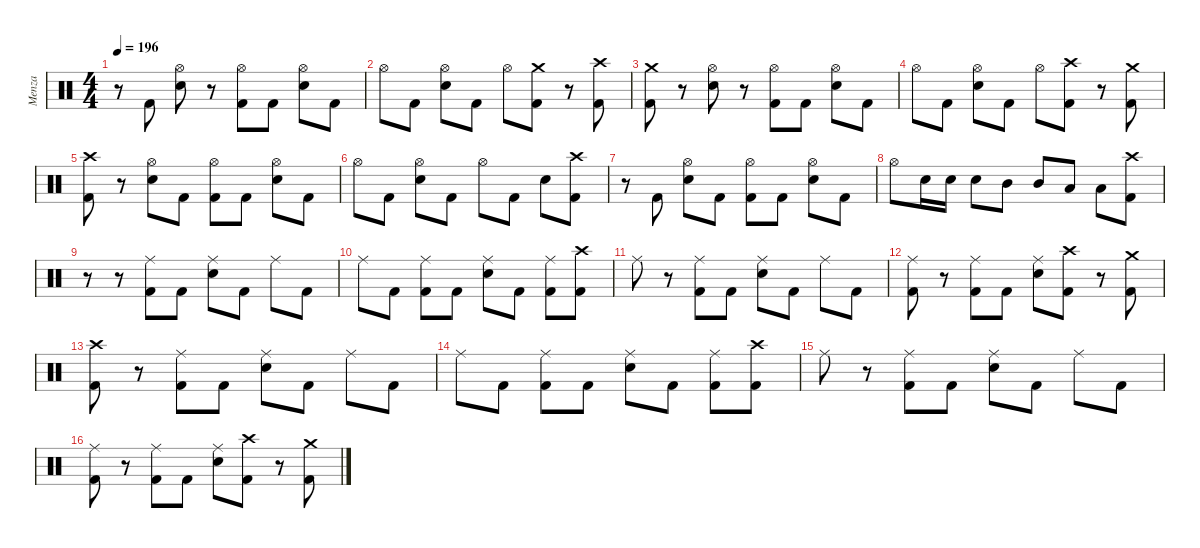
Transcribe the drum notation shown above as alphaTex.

\defaultSystemsLayout 4
\hideDynamics
\bracketExtendMode nobrackets
\firstSystemTrackNameMode fullname
\otherSystemsTrackNameOrientation horizontal
\track ("Menza" "drm.") {instrument percussion}
\staff {score}
\articulation defaults
\ts (4 4)
\tempo 196
\clef neutral
\ks c
r.8{dy fff beam Down} "Kick (hit) 2".8{beam Up} ("Hi-Hat (open)" "Snare (hit) 2").8{dy f beam Down} r.8{beam Down} ("Hi-Hat (open)" "Kick (hit) 2").8{beam Down} "Kick (hit) 2".8{dy fff beam Down} ("Hi-Hat (open)" "Snare (hit) 2").8{dy f beam Down} "Kick (hit) 2".8{dy fff beam Down} |
"Hi-Hat (open)".8{dy f beam Down} "Kick (hit) 2".8{dy fff beam Down} ("Hi-Hat (open)" "Snare (hit) 2").8{dy f beam Down} "Kick (hit) 2".8{dy fff beam Down} "Hi-Hat (open)".8{dy f beam Down} ("Crash medium (hit)" "Kick (hit) 2").8{dy fff beam Down} r.8{beam Down} ("Crash high (hit)" "Kick (hit) 2").8{dy f beam Down} |
("Crash medium (hit)" "Kick (hit) 2").8{dy ff beam Down} r.8{beam Down} ("Hi-Hat (open)" "Snare (hit) 2").8{dy f beam Down} r.8{beam Down} ("Hi-Hat (open)" "Kick (hit) 2").8{beam Down} "Kick (hit) 2".8{dy fff beam Down} ("Hi-Hat (open)" "Snare (hit) 2").8{dy f beam Down} "Kick (hit) 2".8{dy fff beam Down} |
"Hi-Hat (open)".8{dy f beam Down} "Kick (hit) 2".8{dy fff beam Down} ("Hi-Hat (open)" "Snare (hit) 2").8{dy f beam Down} "Kick (hit) 2".8{dy fff beam Down} "Hi-Hat (open)".8{dy f beam Down} ("Crash high (hit)" "Kick (hit) 2").8{dy fff beam Down} r.8{beam Down} ("Crash medium (hit)" "Kick (hit) 2").8{dy f beam Down} |
("Crash high (hit)" "Kick (hit) 2").8{dy fff beam Down} r.8{beam Down} ("Hi-Hat (open)" "Snare (hit) 2").8{dy f beam Down} "Kick (hit) 2".8{dy fff beam Down} ("Hi-Hat (open)" "Kick (hit) 2").8{dy f beam Down} "Kick (hit) 2".8{dy fff beam Down} ("Hi-Hat (open)" "Snare (hit) 2").8{dy f beam Down} "Kick (hit) 2".8{dy fff beam Down} |
"Hi-Hat (open)".8{dy f beam Down} "Kick (hit) 2".8{dy fff beam Down} ("Hi-Hat (open)" "Snare (hit) 2").8{dy f beam Down} "Kick (hit) 2".8{dy fff beam Down} "Hi-Hat (open)".8{dy f beam Down} "Kick (hit) 2".8{dy fff beam Down} "Snare (hit) 2".8{beam Down} ("Crash high (hit)" "Kick (hit) 2").8{beam Down} |
r.8{beam Down} "Kick (hit) 2".8{beam Up} ("Hi-Hat (open)" "Snare (hit) 2").8{dy f beam Down} "Kick (hit) 2".8{dy fff beam Down} ("Hi-Hat (open)" "Kick (hit) 2").8{dy f beam Down} "Kick (hit) 2".8{dy fff beam Down} ("Hi-Hat (open)" "Snare (hit) 2").8{dy f beam Down} "Kick (hit) 2".8{dy fff beam Down} |
"Hi-Hat (open)".8{dy f beam Down} "Snare (hit) 2".16{beam Down} "Snare (hit) 2".16{beam Down} "Snare (hit) 2".8{beam Down} "Mid Tom (hit)".8{beam Down} "Mid Tom (hit)".8{dy ff beam Up} "Low Tom (hit)".8{beam Up} "Low Floor Tom (hit)".8{beam Down} ("Crash high (hit)" "Kick (hit) 2").8{beam Down} |
r.8{beam Down} r.8{beam Down} ("Ride (middle)" "Kick (hit) 2").8{beam Down} "Kick (hit) 2".8{dy fff beam Down} ("Ride (middle)" "Snare (hit) 2").8{dy ff beam Down} "Kick (hit) 2".8{dy fff beam Down} "Ride (middle)".8{dy ff beam Down} "Kick (hit) 2".8{dy fff beam Down} |
"Ride (middle)".8{dy ff beam Down} "Kick (hit) 2".8{dy fff beam Down} ("Ride (middle)" "Kick (hit) 2").8{dy ff beam Down} "Kick (hit) 2".8{dy fff beam Down} ("Ride (middle)" "Snare (hit) 2").8{dy ff beam Down} "Kick (hit) 2".8{dy fff beam Down} ("Ride (middle)" "Kick (hit) 2").8{dy f beam Down} ("Crash high (hit)" "Kick (hit) 2").8{beam Down} |
"Ride (middle)".8{beam Down} r.8{beam Down} ("Ride (middle)" "Kick (hit) 2").8{dy ff beam Down} "Kick (hit) 2".8{dy fff beam Down} ("Ride (middle)" "Snare (hit) 2").8{dy ff beam Down} "Kick (hit) 2".8{dy fff beam Down} "Ride (middle)".8{dy ff beam Down} "Kick (hit) 2".8{dy fff beam Down} |
("Ride (middle)" "Kick (hit) 2").8{dy ff beam Down} r.8{beam Down} ("Ride (middle)" "Kick (hit) 2").8{beam Down} "Kick (hit) 2".8{dy fff beam Down} ("Ride (middle)" "Snare (hit) 2").8{dy ff beam Down} ("Crash high (hit)" "Kick (hit) 2").8{dy fff beam Down} r.8{beam Down} ("Crash medium (hit)" "Kick (hit) 2").8{beam Down} |
("Crash high (hit)" "Kick (hit) 2").8{dy f beam Down} r.8{beam Down} ("Ride (middle)" "Kick (hit) 2").8{dy ff beam Down} "Kick (hit) 2".8{dy fff beam Down} ("Ride (middle)" "Snare (hit) 2").8{dy ff beam Down} "Kick (hit) 2".8{dy fff beam Down} "Ride (middle)".8{dy ff beam Down} "Kick (hit) 2".8{dy fff beam Down} |
"Ride (middle)".8{dy ff beam Down} "Kick (hit) 2".8{dy fff beam Down} ("Ride (middle)" "Kick (hit) 2").8{dy ff beam Down} "Kick (hit) 2".8{dy fff beam Down} ("Ride (middle)" "Snare (hit) 2").8{dy ff beam Down} "Kick (hit) 2".8{dy fff beam Down} ("Ride (middle)" "Kick (hit) 2").8{dy f beam Down} ("Crash high (hit)" "Kick (hit) 2").8{beam Down} |
"Ride (middle)".8{beam Down} r.8{beam Down} ("Ride (middle)" "Kick (hit) 2").8{dy ff beam Down} "Kick (hit) 2".8{dy fff beam Down} ("Ride (middle)" "Snare (hit) 2").8{dy ff beam Down} "Kick (hit) 2".8{dy fff beam Down} "Ride (middle)".8{dy ff beam Down} "Kick (hit) 2".8{dy fff beam Down} |
("Ride (middle)" "Kick (hit) 2").8{dy ff beam Down} r.8{beam Down} ("Ride (middle)" "Kick (hit) 2").8{beam Down} "Kick (hit) 2".8{dy fff beam Down} ("Ride (middle)" "Snare (hit) 2").8{dy ff beam Down} ("Crash high (hit)" "Kick (hit) 2").8{dy fff beam Down} r.8{beam Down} ("Crash medium (hit)" "Kick (hit) 2").8{beam Down}
